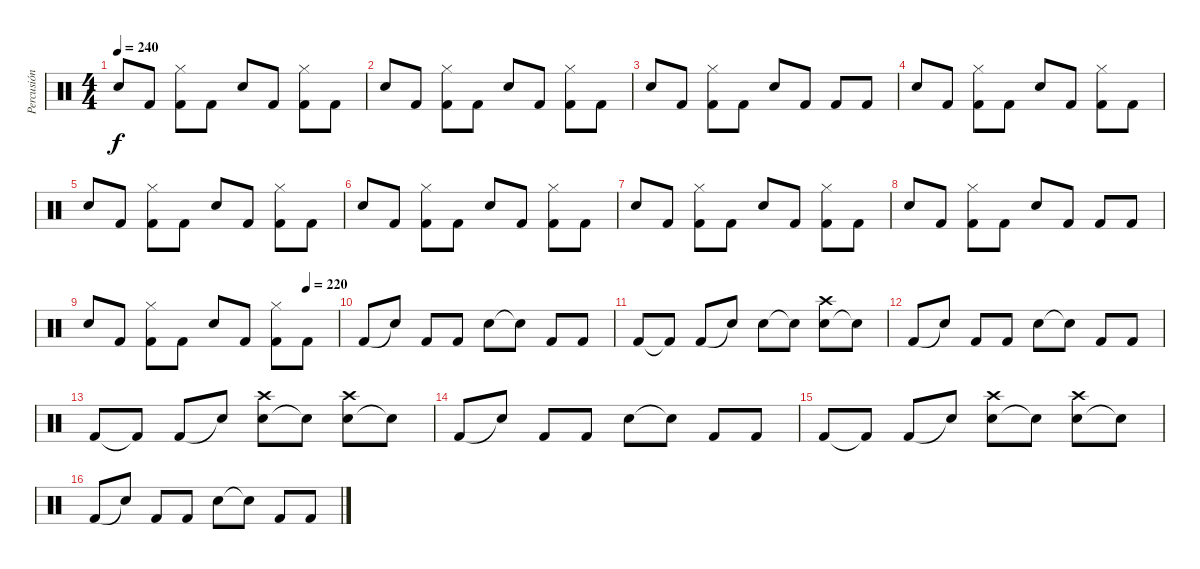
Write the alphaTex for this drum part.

\track ("Percusión" "Percusión") {instrument percussion}
\staff {score}
\articulation defaults
\ts (4 4)
\tempo 240
\clef neutral
\ks c "Snare (hit) 2".8{dy f} "Kick (hit) 2".8
("Kick (hit) 2" "Hi-Hat (closed)").8 "Kick (hit) 2".8 "Snare (hit) 2".8 "Kick (hit) 2".8 ("Kick (hit) 2" "Hi-Hat (closed)").8 "Kick (hit) 2".8 |
"Snare (hit) 2".8 "Kick (hit) 2".8 ("Kick (hit) 2" "Hi-Hat (closed)").8 "Kick (hit) 2".8 "Snare (hit) 2".8 "Kick (hit) 2".8 ("Kick (hit) 2" "Hi-Hat (closed)").8 "Kick (hit) 2".8 |
"Snare (hit) 2".8 "Kick (hit) 2".8 ("Kick (hit) 2" "Hi-Hat (closed)").8 "Kick (hit) 2".8 "Snare (hit) 2".8 "Kick (hit) 2".8 "Kick (hit) 2".8 "Kick (hit) 2".8 |
"Snare (hit) 2".8 "Kick (hit) 2".8 ("Kick (hit) 2" "Hi-Hat (closed)").8 "Kick (hit) 2".8 "Snare (hit) 2".8 "Kick (hit) 2".8 ("Kick (hit) 2" "Hi-Hat (closed)").8 "Kick (hit) 2".8 |
"Snare (hit) 2".8 "Kick (hit) 2".8 ("Kick (hit) 2" "Hi-Hat (closed)").8 "Kick (hit) 2".8 "Snare (hit) 2".8 "Kick (hit) 2".8 ("Kick (hit) 2" "Hi-Hat (closed)").8 "Kick (hit) 2".8 |
"Snare (hit) 2".8 "Kick (hit) 2".8 ("Kick (hit) 2" "Hi-Hat (closed)").8 "Kick (hit) 2".8 "Snare (hit) 2".8 "Kick (hit) 2".8 ("Kick (hit) 2" "Hi-Hat (closed)").8 "Kick (hit) 2".8 |
"Snare (hit) 2".8 "Kick (hit) 2".8 ("Kick (hit) 2" "Hi-Hat (closed)").8 "Kick (hit) 2".8 "Snare (hit) 2".8 "Kick (hit) 2".8 ("Kick (hit) 2" "Hi-Hat (closed)").8 "Kick (hit) 2".8 |
"Snare (hit) 2".8 "Kick (hit) 2".8 ("Kick (hit) 2" "Hi-Hat (closed)").8 "Kick (hit) 2".8 "Snare (hit) 2".8 "Kick (hit) 2".8 "Kick (hit) 2".8 "Kick (hit) 2".8 |
\tempo (220 0.875)
"Snare (hit) 2".8 "Kick (hit) 2".8 ("Kick (hit) 2" "Hi-Hat (closed)").8 "Kick (hit) 2".8 "Snare (hit) 2".8 "Kick (hit) 2".8 ("Kick (hit) 2" "Hi-Hat (closed)").8 "Kick (hit) 2".8 |
"Kick (hit) 2".8 "Snare (hit)"{t}.8 "Kick (hit) 2".8 "Kick (hit) 2".8 "Snare (hit) 2".8 "Snare (hit)"{t}.8 "Kick (hit) 2".8 "Kick (hit) 2".8 |
"Kick (hit) 2".8 "Kick (hit) 2"{t}.8 "Kick (hit) 2".8 "Snare (hit)"{t}.8 "Snare (hit) 2".8 "Snare (hit)"{t}.8 ("Snare (hit) 2" "Crash high (hit)").8 "Snare (hit)"{t}.8 |
"Kick (hit) 2".8 "Snare (hit)"{t}.8 "Kick (hit) 2".8 "Kick (hit) 2".8 "Snare (hit) 2".8 "Snare (hit)"{t}.8 "Kick (hit) 2".8 "Kick (hit) 2".8 |
"Kick (hit) 2".8 "Kick (hit) 2"{t}.8 "Kick (hit) 2".8 "Snare (hit)"{t}.8 ("Snare (hit) 2" "Crash high (hit)").8 "Snare (hit)"{t}.8 ("Snare (hit) 2" "Crash high (hit)").8 "Snare (hit)"{t}.8 |
"Kick (hit) 2".8 "Snare (hit)"{t}.8 "Kick (hit) 2".8 "Kick (hit) 2".8 "Snare (hit) 2".8 "Snare (hit)"{t}.8 "Kick (hit) 2".8 "Kick (hit) 2".8 |
"Kick (hit) 2".8 "Kick (hit) 2"{t}.8 "Kick (hit) 2".8 "Snare (hit)"{t}.8 ("Snare (hit) 2" "Crash high (hit)").8 "Snare (hit)"{t}.8 ("Snare (hit) 2" "Crash high (hit)").8 "Snare (hit)"{t}.8 |
"Kick (hit) 2".8 "Snare (hit)"{t}.8 "Kick (hit) 2".8 "Kick (hit) 2".8 "Snare (hit) 2".8 "Snare (hit)"{t}.8 "Kick (hit) 2".8 "Kick (hit) 2".8
